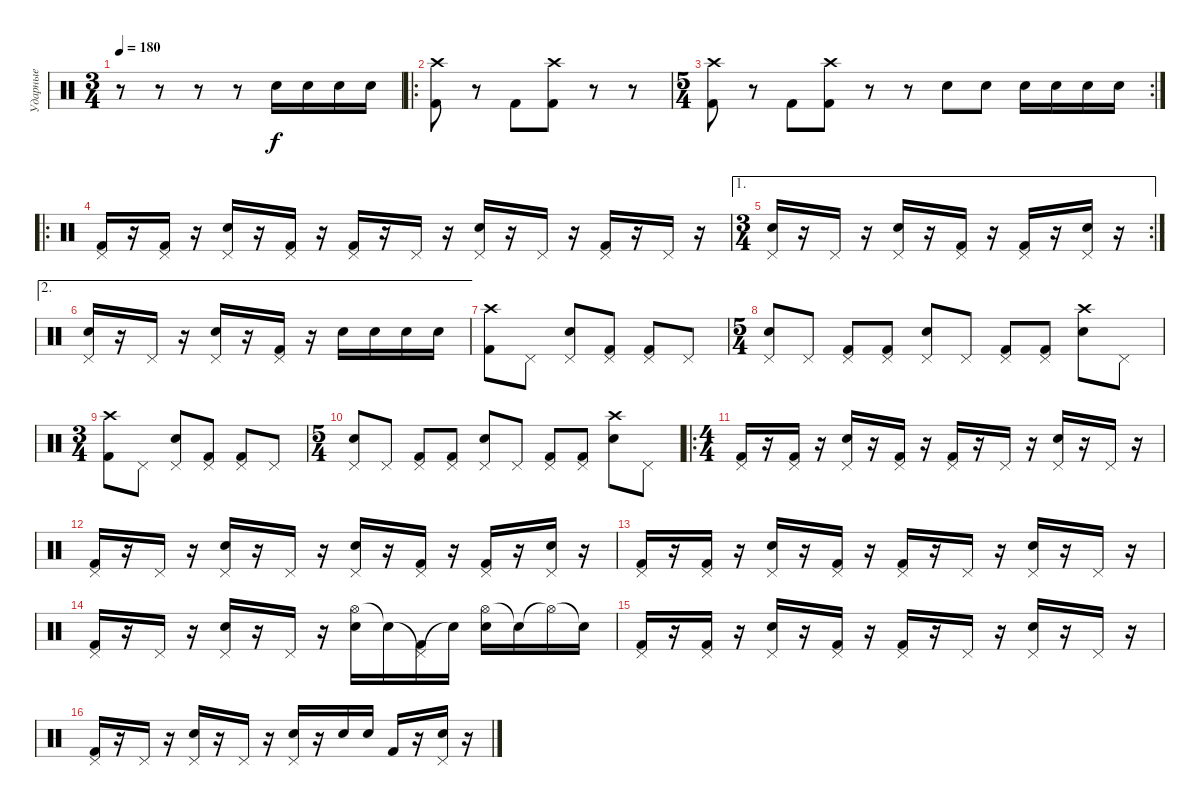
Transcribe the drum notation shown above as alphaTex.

\track ("Ударные" "Ударные") {instrument percussion}
\staff {score}
\articulation defaults
\ts (3 4)
\tempo 180
\clef neutral
\ks c
r.8{dy f} r.8 r.8 r.8 "Electric Snare (hit)".16 "Electric Snare (hit)".16 "Electric Snare (hit)".16 "Electric Snare (hit)".16 |
\ro
("Crash high (hit)" "Kick (hit) 2").8 r.8 "Kick (hit) 2".8 ("Crash high (hit)" "Kick (hit) 2").8 r.8 r.8 |
\rc 2
\ts (5 4)
("Crash high (hit)" "Kick (hit) 2").8 r.8 "Kick (hit) 2".8 ("Crash high (hit)" "Kick (hit) 2").8 r.8 r.8 "Electric Snare (hit)".8 "Electric Snare (hit)".8 "Electric Snare (hit)".16 "Electric Snare (hit)".16 "Electric Snare (hit)".16 "Electric Snare (hit)".16 |
\ro
("Pedal Hi-Hat (hit)" "Kick (hit) 2").16 r.16 ("Pedal Hi-Hat (hit)" "Kick (hit) 2").16 r.16 ("Pedal Hi-Hat (hit)" "Electric Snare (hit)").16 r.16 ("Pedal Hi-Hat (hit)" "Kick (hit) 2").16 r.16 ("Pedal Hi-Hat (hit)" "Kick (hit) 2").16 r.16 "Pedal Hi-Hat (hit)".16 r.16 ("Pedal Hi-Hat (hit)" "Electric Snare (hit)").16 r.16 "Pedal Hi-Hat (hit)".16 r.16 ("Pedal Hi-Hat (hit)" "Kick (hit) 2").16 r.16 "Pedal Hi-Hat (hit)".16 r.16 |
\ae 1
\rc 2
\ts (3 4)
("Pedal Hi-Hat (hit)" "Electric Snare (hit)").16 r.16 "Pedal Hi-Hat (hit)".16 r.16 ("Pedal Hi-Hat (hit)" "Electric Snare (hit)").16 r.16 ("Pedal Hi-Hat (hit)" "Kick (hit) 2").16 r.16 ("Pedal Hi-Hat (hit)" "Kick (hit) 2").16 r.16 ("Pedal Hi-Hat (hit)" "Electric Snare (hit)").16 r.16 |
\ae 2
("Pedal Hi-Hat (hit)" "Electric Snare (hit)").16 r.16 "Pedal Hi-Hat (hit)".16 r.16 ("Pedal Hi-Hat (hit)" "Electric Snare (hit)").16 r.16 ("Pedal Hi-Hat (hit)" "Kick (hit) 2").16 r.16 "Electric Snare (hit)".16 "Electric Snare (hit)".16 "Electric Snare (hit)".16 "Electric Snare (hit)".16 |
("Crash high (hit)" "Kick (hit) 2").8 "Pedal Hi-Hat (hit)".8 ("Pedal Hi-Hat (hit)" "Electric Snare (hit)").8 ("Pedal Hi-Hat (hit)" "Kick (hit) 2").8 ("Pedal Hi-Hat (hit)" "Kick (hit) 2").8 "Pedal Hi-Hat (hit)".8 |
\ts (5 4)
("Pedal Hi-Hat (hit)" "Electric Snare (hit)").8 "Pedal Hi-Hat (hit)".8 ("Pedal Hi-Hat (hit)" "Kick (hit) 2").8 ("Pedal Hi-Hat (hit)" "Kick (hit) 2").8 ("Pedal Hi-Hat (hit)" "Electric Snare (hit)").8 "Pedal Hi-Hat (hit)".8 ("Pedal Hi-Hat (hit)" "Kick (hit) 2").8 ("Pedal Hi-Hat (hit)" "Kick (hit) 2").8 ("Crash high (hit)" "Electric Snare (hit)").8 "Pedal Hi-Hat (hit)".8 |
\ts (3 4)
("Crash high (hit)" "Kick (hit) 2").8 "Pedal Hi-Hat (hit)".8 ("Pedal Hi-Hat (hit)" "Electric Snare (hit)").8 ("Pedal Hi-Hat (hit)" "Kick (hit) 2").8 ("Pedal Hi-Hat (hit)" "Kick (hit) 2").8 "Pedal Hi-Hat (hit)".8 |
\ts (5 4)
("Pedal Hi-Hat (hit)" "Electric Snare (hit)").8 "Pedal Hi-Hat (hit)".8 ("Pedal Hi-Hat (hit)" "Kick (hit) 2").8 ("Pedal Hi-Hat (hit)" "Kick (hit) 2").8 ("Pedal Hi-Hat (hit)" "Electric Snare (hit)").8 "Pedal Hi-Hat (hit)".8 ("Pedal Hi-Hat (hit)" "Kick (hit) 2").8 ("Pedal Hi-Hat (hit)" "Kick (hit) 2").8 ("Crash high (hit)" "Electric Snare (hit)").8 "Pedal Hi-Hat (hit)".8 |
\ro
\ts (4 4)
("Pedal Hi-Hat (hit)" "Kick (hit) 2").16 r.16 ("Pedal Hi-Hat (hit)" "Kick (hit) 2").16 r.16 ("Pedal Hi-Hat (hit)" "Electric Snare (hit)").16 r.16 ("Pedal Hi-Hat (hit)" "Kick (hit) 2").16 r.16 ("Pedal Hi-Hat (hit)" "Kick (hit) 2").16 r.16 "Pedal Hi-Hat (hit)".16 r.16 ("Pedal Hi-Hat (hit)" "Electric Snare (hit)").16 r.16 "Pedal Hi-Hat (hit)".16 r.16 |
("Pedal Hi-Hat (hit)" "Kick (hit) 2").16 r.16 "Pedal Hi-Hat (hit)".16 r.16 ("Pedal Hi-Hat (hit)" "Electric Snare (hit)").16 r.16 "Pedal Hi-Hat (hit)".16 r.16 ("Pedal Hi-Hat (hit)" "Electric Snare (hit)").16 r.16 ("Pedal Hi-Hat (hit)" "Kick (hit) 2").16 r.16 ("Pedal Hi-Hat (hit)" "Kick (hit) 2").16 r.16 ("Pedal Hi-Hat (hit)" "Electric Snare (hit)").16 r.16 |
("Pedal Hi-Hat (hit)" "Kick (hit) 2").16 r.16 ("Pedal Hi-Hat (hit)" "Kick (hit) 2").16 r.16 ("Pedal Hi-Hat (hit)" "Electric Snare (hit)").16 r.16 ("Pedal Hi-Hat (hit)" "Kick (hit) 2").16 r.16 ("Pedal Hi-Hat (hit)" "Kick (hit) 2").16 r.16 "Pedal Hi-Hat (hit)".16 r.16 ("Pedal Hi-Hat (hit)" "Electric Snare (hit)").16 r.16 "Pedal Hi-Hat (hit)".16 r.16 |
("Pedal Hi-Hat (hit)" "Kick (hit) 2").16 r.16 "Pedal Hi-Hat (hit)".16 r.16 ("Pedal Hi-Hat (hit)" "Electric Snare (hit)").16 r.16 "Pedal Hi-Hat (hit)".16 r.16 ("Hi-Hat (open)" "Electric Snare (hit)").16 "Snare (hit)"{t}.16 ("Pedal Hi-Hat (hit)"{t} "Kick (hit) 2").16 "Snare (hit)"{t}.16 ("Hi-Hat (open)" "Electric Snare (hit)").16 "Snare (hit)"{t}.16 "Hi-Hat (open)"{t}.16 "Snare (hit)"{t}.16 |
("Pedal Hi-Hat (hit)" "Kick (hit) 2").16 r.16 ("Pedal Hi-Hat (hit)" "Kick (hit) 2").16 r.16 ("Pedal Hi-Hat (hit)" "Electric Snare (hit)").16 r.16 ("Pedal Hi-Hat (hit)" "Kick (hit) 2").16 r.16 ("Pedal Hi-Hat (hit)" "Kick (hit) 2").16 r.16 "Pedal Hi-Hat (hit)".16 r.16 ("Pedal Hi-Hat (hit)" "Electric Snare (hit)").16 r.16 "Pedal Hi-Hat (hit)".16 r.16 |
("Pedal Hi-Hat (hit)" "Kick (hit) 2").16 r.16 "Pedal Hi-Hat (hit)".16 r.16 ("Pedal Hi-Hat (hit)" "Electric Snare (hit)").16 r.16 "Pedal Hi-Hat (hit)".16 r.16 ("Pedal Hi-Hat (hit)" "Electric Snare (hit)").16 r.16 "Electric Snare (hit)".16 "Electric Snare (hit)".16 "Kick (hit) 2".16 r.16 ("Pedal Hi-Hat (hit)" "Electric Snare (hit)").16 r.16
